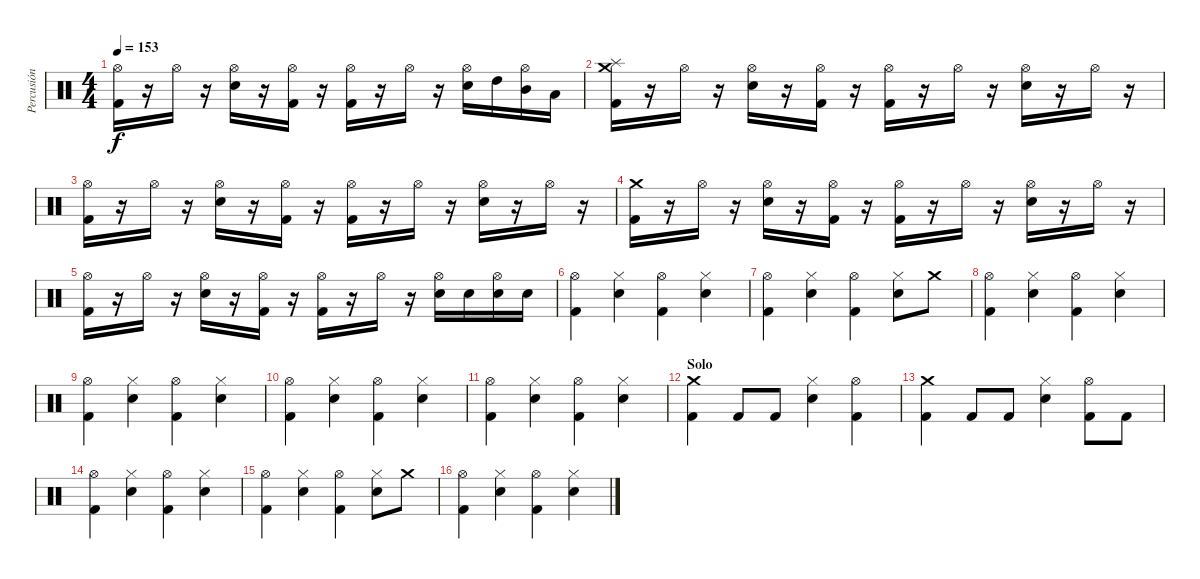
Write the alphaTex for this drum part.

\track ("Percusión" "Percusión") {instrument percussion}
\staff {score}
\articulation defaults
\ts (4 4)
\tempo 153
\clef neutral
\ks c
("Kick (hit) 2" "Hi-Hat (open)").16{dy f} r.16 "Hi-Hat (open)".16 r.16 ("Electric Snare (hit)" "Hi-Hat (open)").16 r.16 ("Kick (hit) 2" "Hi-Hat (open)").16 r.16 ("Kick (hit) 2" "Hi-Hat (open)").16 r.16 "Hi-Hat (open)".16 r.16 ("Electric Snare (hit)" "Hi-Hat (open)").16 "High Tom (hit)".16 ("Mid Tom (hit)" "Hi-Hat (open)").16 "Low Tom (hit)".16 |
("Kick (hit) 2" "Crash medium (hit)" "Splash (hit)").16 r.16 "Hi-Hat (open)".16 r.16 ("Electric Snare (hit)" "Hi-Hat (open)").16 r.16 ("Kick (hit) 2" "Hi-Hat (open)").16 r.16 ("Kick (hit) 2" "Hi-Hat (open)").16 r.16 "Hi-Hat (open)".16 r.16 ("Electric Snare (hit)" "Hi-Hat (open)").16 r.16 "Hi-Hat (open)".16 r.16 |
("Kick (hit) 2" "Hi-Hat (open)").16 r.16 "Hi-Hat (open)".16 r.16 ("Electric Snare (hit)" "Hi-Hat (open)").16 r.16 ("Kick (hit) 2" "Hi-Hat (open)").16 r.16 ("Kick (hit) 2" "Hi-Hat (open)").16 r.16 "Hi-Hat (open)".16 r.16 ("Electric Snare (hit)" "Hi-Hat (open)").16 r.16 "Hi-Hat (open)".16 r.16 |
("Kick (hit) 2" "Crash medium (hit)").16 r.16 "Hi-Hat (open)".16 r.16 ("Electric Snare (hit)" "Hi-Hat (open)").16 r.16 ("Kick (hit) 2" "Hi-Hat (open)").16 r.16 ("Kick (hit) 2" "Hi-Hat (open)").16 r.16 "Hi-Hat (open)".16 r.16 ("Electric Snare (hit)" "Hi-Hat (open)").16 r.16 "Hi-Hat (open)".16 r.16 |
("Kick (hit) 2" "Hi-Hat (open)").16 r.16 "Hi-Hat (open)".16 r.16 ("Electric Snare (hit)" "Hi-Hat (open)").16 r.16 ("Kick (hit) 2" "Hi-Hat (open)").16 r.16 ("Kick (hit) 2" "Hi-Hat (open)").16 r.16 "Hi-Hat (open)".16 r.16 ("Electric Snare (hit)" "Hi-Hat (open)").16 "Electric Snare (hit)".16 ("Electric Snare (hit)" "Hi-Hat (open)").16 "Electric Snare (hit)".16 |
("Kick (hit) 2" "Hi-Hat (open)").4 ("Electric Snare (hit)" "Hi-Hat (closed)").4 ("Kick (hit) 2" "Hi-Hat (open)").4 ("Electric Snare (hit)" "Hi-Hat (closed)").4 |
("Kick (hit) 2" "Hi-Hat (open)").4 ("Electric Snare (hit)" "Hi-Hat (closed)").4 ("Kick (hit) 2" "Hi-Hat (open)").4 ("Electric Snare (hit)" "Hi-Hat (closed)").8 "Crash medium (hit)".8 |
("Kick (hit) 2" "Hi-Hat (open)").4 ("Electric Snare (hit)" "Hi-Hat (closed)").4 ("Kick (hit) 2" "Hi-Hat (open)").4 ("Electric Snare (hit)" "Hi-Hat (closed)").4 |
("Kick (hit) 2" "Hi-Hat (open)").4 ("Electric Snare (hit)" "Hi-Hat (closed)").4 ("Kick (hit) 2" "Hi-Hat (open)").4 ("Electric Snare (hit)" "Hi-Hat (closed)").4 |
("Kick (hit) 2" "Hi-Hat (open)").4 ("Electric Snare (hit)" "Hi-Hat (closed)").4 ("Kick (hit) 2" "Hi-Hat (open)").4 ("Electric Snare (hit)" "Hi-Hat (closed)").4 |
("Kick (hit) 2" "Hi-Hat (open)").4 ("Electric Snare (hit)" "Hi-Hat (closed)").4 ("Kick (hit) 2" "Hi-Hat (open)").4 ("Electric Snare (hit)" "Hi-Hat (closed)").4 |
\section ("" "Solo")
("Kick (hit) 2" "Crash medium (hit)").4 "Kick (hit) 2".8 "Kick (hit) 2".8 ("Electric Snare (hit)" "Hi-Hat (closed)").4 ("Kick (hit) 2" "Hi-Hat (open)").4 |
("Kick (hit) 2" "Crash medium (hit)").4 "Kick (hit) 2".8 "Kick (hit) 2".8 ("Electric Snare (hit)" "Hi-Hat (closed)").4 ("Kick (hit) 2" "Hi-Hat (open)").8 "Kick (hit) 2".8 |
("Kick (hit) 2" "Hi-Hat (open)").4 ("Electric Snare (hit)" "Hi-Hat (closed)").4 ("Kick (hit) 2" "Hi-Hat (open)").4 ("Electric Snare (hit)" "Hi-Hat (closed)").4 |
("Kick (hit) 2" "Hi-Hat (open)").4 ("Electric Snare (hit)" "Hi-Hat (closed)").4 ("Kick (hit) 2" "Hi-Hat (open)").4 ("Electric Snare (hit)" "Hi-Hat (closed)").8 "Crash medium (hit)".8 |
("Kick (hit) 2" "Hi-Hat (open)").4 ("Electric Snare (hit)" "Hi-Hat (closed)").4 ("Kick (hit) 2" "Hi-Hat (open)").4 ("Electric Snare (hit)" "Hi-Hat (closed)").4
